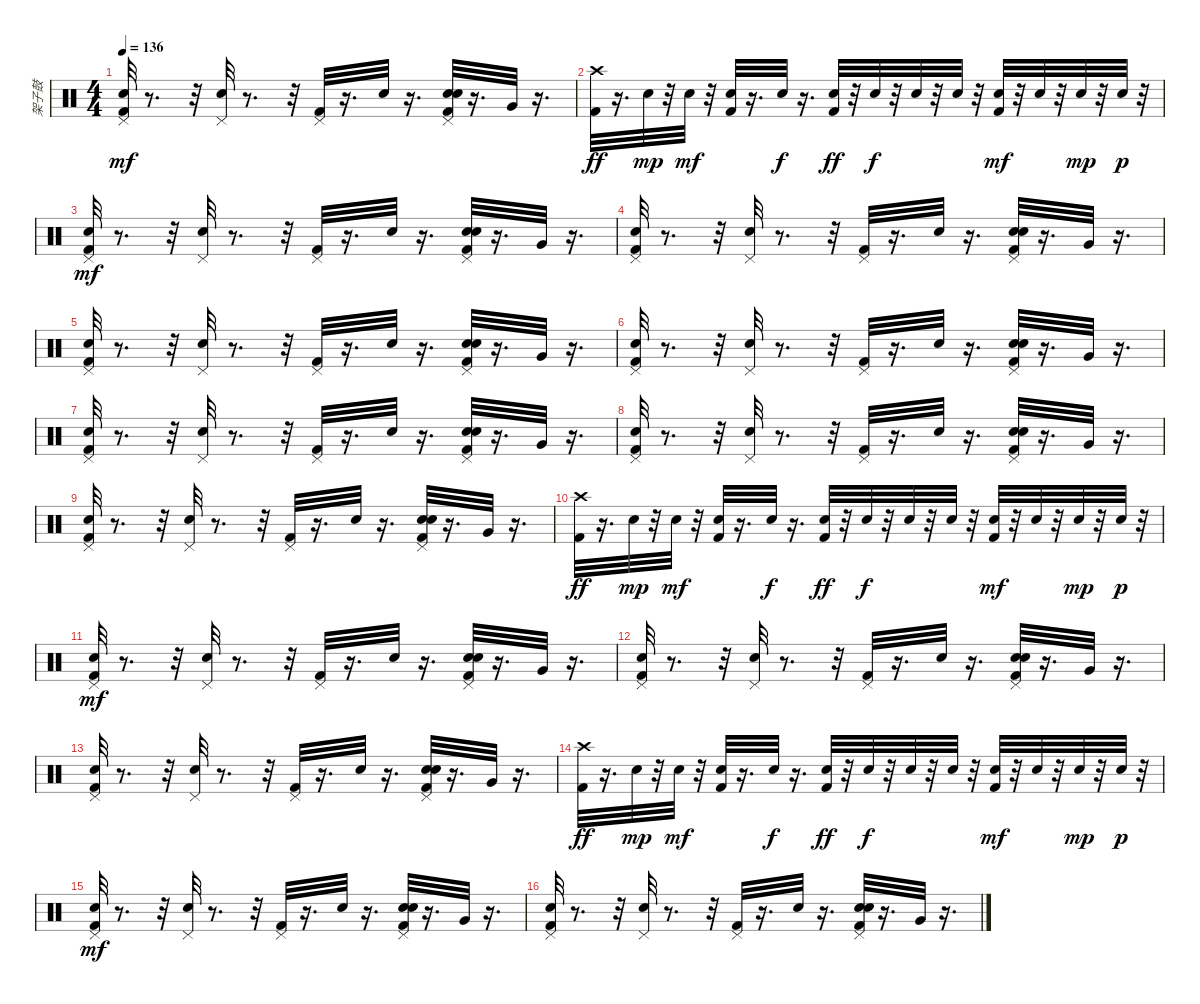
\track ("架子鼓" "架子鼓") {instrument percussion}
\staff {score}
\articulation defaults
\ts (4 4)
\tempo 136
\clef neutral
\ks c
("Pedal Hi-Hat (hit)" "Kick (hit) 2" "Metronome (bell)").32{dy mf} r.8{d} r.32 ("Pedal Hi-Hat (hit)" "Metronome (bell)").32 r.8{d} r.32 ("Pedal Hi-Hat (hit)" "Kick (hit) 2").32 r.16{d} "Metronome (bell)".32 r.16{d} ("Pedal Hi-Hat (hit)" "Electric Snare (hit)" "Kick (hit) 2" "Metronome (bell)").32 r.16{d} "Very Low Tom (hit)".32 r.16{d} |
("Crash high (hit)" "Kick (hit) 2").32{dy ff} r.16{d} "Metronome (bell)".32{dy mp} r.32 "Metronome (bell)".32{dy mf} r.32 ("Metronome (bell)" "Kick (hit) 2").32 r.16{d} "Metronome (bell)".32{dy f} r.16{d} ("Kick (hit) 2" "Metronome (bell)").32{dy ff} r.32 "Metronome (bell)".32{dy f} r.32 "Metronome (bell)".32 r.32 "Metronome (bell)".32 r.32 ("Kick (hit) 2" "Metronome (bell)").32{dy mf} r.32 "Metronome (bell)".32 r.32 "Metronome (bell)".32{dy mp} r.32 "Metronome (bell)".32{dy p} r.32 |
("Pedal Hi-Hat (hit)" "Kick (hit) 2" "Metronome (bell)").32{dy mf} r.8{d} r.32 ("Pedal Hi-Hat (hit)" "Metronome (bell)").32 r.8{d} r.32 ("Pedal Hi-Hat (hit)" "Kick (hit) 2").32 r.16{d} "Metronome (bell)".32 r.16{d} ("Pedal Hi-Hat (hit)" "Electric Snare (hit)" "Kick (hit) 2" "Metronome (bell)").32 r.16{d} "Very Low Tom (hit)".32 r.16{d} |
("Pedal Hi-Hat (hit)" "Kick (hit) 2" "Metronome (bell)").32 r.8{d} r.32 ("Pedal Hi-Hat (hit)" "Metronome (bell)").32 r.8{d} r.32 ("Pedal Hi-Hat (hit)" "Kick (hit) 2").32 r.16{d} "Metronome (bell)".32 r.16{d} ("Pedal Hi-Hat (hit)" "Electric Snare (hit)" "Kick (hit) 2" "Metronome (bell)").32 r.16{d} "Very Low Tom (hit)".32 r.16{d} |
("Pedal Hi-Hat (hit)" "Kick (hit) 2" "Metronome (bell)").32 r.8{d} r.32 ("Pedal Hi-Hat (hit)" "Metronome (bell)").32 r.8{d} r.32 ("Pedal Hi-Hat (hit)" "Kick (hit) 2").32 r.16{d} "Metronome (bell)".32 r.16{d} ("Pedal Hi-Hat (hit)" "Electric Snare (hit)" "Kick (hit) 2" "Metronome (bell)").32 r.16{d} "Very Low Tom (hit)".32 r.16{d} |
("Pedal Hi-Hat (hit)" "Kick (hit) 2" "Metronome (bell)").32 r.8{d} r.32 ("Pedal Hi-Hat (hit)" "Metronome (bell)").32 r.8{d} r.32 ("Pedal Hi-Hat (hit)" "Kick (hit) 2").32 r.16{d} "Metronome (bell)".32 r.16{d} ("Pedal Hi-Hat (hit)" "Electric Snare (hit)" "Kick (hit) 2" "Metronome (bell)").32 r.16{d} "Very Low Tom (hit)".32 r.16{d} |
("Pedal Hi-Hat (hit)" "Kick (hit) 2" "Metronome (bell)").32 r.8{d} r.32 ("Pedal Hi-Hat (hit)" "Metronome (bell)").32 r.8{d} r.32 ("Pedal Hi-Hat (hit)" "Kick (hit) 2").32 r.16{d} "Metronome (bell)".32 r.16{d} ("Pedal Hi-Hat (hit)" "Electric Snare (hit)" "Kick (hit) 2" "Metronome (bell)").32 r.16{d} "Very Low Tom (hit)".32 r.16{d} |
("Pedal Hi-Hat (hit)" "Kick (hit) 2" "Metronome (bell)").32 r.8{d} r.32 ("Pedal Hi-Hat (hit)" "Metronome (bell)").32 r.8{d} r.32 ("Pedal Hi-Hat (hit)" "Kick (hit) 2").32 r.16{d} "Metronome (bell)".32 r.16{d} ("Pedal Hi-Hat (hit)" "Electric Snare (hit)" "Kick (hit) 2" "Metronome (bell)").32 r.16{d} "Very Low Tom (hit)".32 r.16{d} |
("Pedal Hi-Hat (hit)" "Kick (hit) 2" "Metronome (bell)").32 r.8{d} r.32 ("Pedal Hi-Hat (hit)" "Metronome (bell)").32 r.8{d} r.32 ("Pedal Hi-Hat (hit)" "Kick (hit) 2").32 r.16{d} "Metronome (bell)".32 r.16{d} ("Pedal Hi-Hat (hit)" "Electric Snare (hit)" "Kick (hit) 2" "Metronome (bell)").32 r.16{d} "Very Low Tom (hit)".32 r.16{d} |
("Crash high (hit)" "Kick (hit) 2").32{dy ff} r.16{d} "Metronome (bell)".32{dy mp} r.32 "Metronome (bell)".32{dy mf} r.32 ("Metronome (bell)" "Kick (hit) 2").32 r.16{d} "Metronome (bell)".32{dy f} r.16{d} ("Kick (hit) 2" "Metronome (bell)").32{dy ff} r.32 "Metronome (bell)".32{dy f} r.32 "Metronome (bell)".32 r.32 "Metronome (bell)".32 r.32 ("Kick (hit) 2" "Metronome (bell)").32{dy mf} r.32 "Metronome (bell)".32 r.32 "Metronome (bell)".32{dy mp} r.32 "Metronome (bell)".32{dy p} r.32 |
("Pedal Hi-Hat (hit)" "Kick (hit) 2" "Metronome (bell)").32{dy mf} r.8{d} r.32 ("Pedal Hi-Hat (hit)" "Metronome (bell)").32 r.8{d} r.32 ("Pedal Hi-Hat (hit)" "Kick (hit) 2").32 r.16{d} "Metronome (bell)".32 r.16{d} ("Pedal Hi-Hat (hit)" "Electric Snare (hit)" "Kick (hit) 2" "Metronome (bell)").32 r.16{d} "Very Low Tom (hit)".32 r.16{d} |
("Pedal Hi-Hat (hit)" "Kick (hit) 2" "Metronome (bell)").32 r.8{d} r.32 ("Pedal Hi-Hat (hit)" "Metronome (bell)").32 r.8{d} r.32 ("Pedal Hi-Hat (hit)" "Kick (hit) 2").32 r.16{d} "Metronome (bell)".32 r.16{d} ("Pedal Hi-Hat (hit)" "Electric Snare (hit)" "Kick (hit) 2" "Metronome (bell)").32 r.16{d} "Very Low Tom (hit)".32 r.16{d} |
("Pedal Hi-Hat (hit)" "Kick (hit) 2" "Metronome (bell)").32 r.8{d} r.32 ("Pedal Hi-Hat (hit)" "Metronome (bell)").32 r.8{d} r.32 ("Pedal Hi-Hat (hit)" "Kick (hit) 2").32 r.16{d} "Metronome (bell)".32 r.16{d} ("Pedal Hi-Hat (hit)" "Electric Snare (hit)" "Kick (hit) 2" "Metronome (bell)").32 r.16{d} "Very Low Tom (hit)".32 r.16{d} |
("Crash high (hit)" "Kick (hit) 2").32{dy ff} r.16{d} "Metronome (bell)".32{dy mp} r.32 "Metronome (bell)".32{dy mf} r.32 ("Metronome (bell)" "Kick (hit) 2").32 r.16{d} "Metronome (bell)".32{dy f} r.16{d} ("Kick (hit) 2" "Metronome (bell)").32{dy ff} r.32 "Metronome (bell)".32{dy f} r.32 "Metronome (bell)".32 r.32 "Metronome (bell)".32 r.32 ("Kick (hit) 2" "Metronome (bell)").32{dy mf} r.32 "Metronome (bell)".32 r.32 "Metronome (bell)".32{dy mp} r.32 "Metronome (bell)".32{dy p} r.32 |
("Pedal Hi-Hat (hit)" "Kick (hit) 2" "Metronome (bell)").32{dy mf} r.8{d} r.32 ("Pedal Hi-Hat (hit)" "Metronome (bell)").32 r.8{d} r.32 ("Pedal Hi-Hat (hit)" "Kick (hit) 2").32 r.16{d} "Metronome (bell)".32 r.16{d} ("Pedal Hi-Hat (hit)" "Electric Snare (hit)" "Kick (hit) 2" "Metronome (bell)").32 r.16{d} "Very Low Tom (hit)".32 r.16{d} |
("Pedal Hi-Hat (hit)" "Kick (hit) 2" "Metronome (bell)").32 r.8{d} r.32 ("Pedal Hi-Hat (hit)" "Metronome (bell)").32 r.8{d} r.32 ("Pedal Hi-Hat (hit)" "Kick (hit) 2").32 r.16{d} "Metronome (bell)".32 r.16{d} ("Pedal Hi-Hat (hit)" "Electric Snare (hit)" "Kick (hit) 2" "Metronome (bell)").32 r.16{d} "Very Low Tom (hit)".32 r.16{d}
